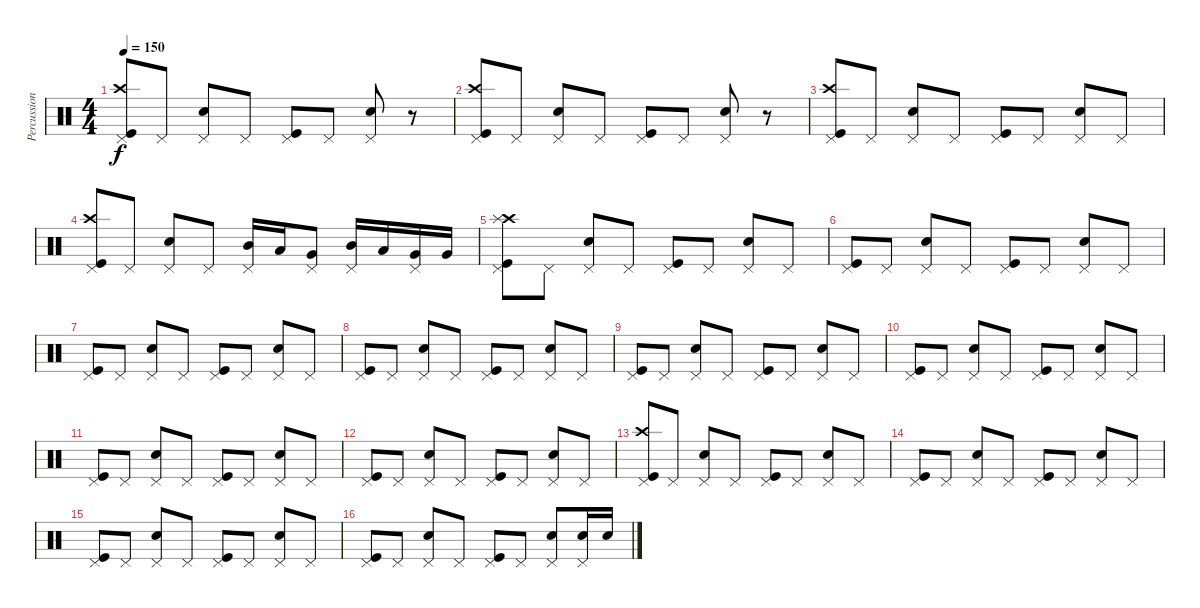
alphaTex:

\track ("Percussion" "Percussion") {instrument percussion}
\staff {score}
\articulation defaults
\ts (4 4)
\tempo 150
\clef neutral
\ks c
("Pedal Hi-Hat (hit)" "Crash high (hit)" "Kick (hit)").8{dy f} "Pedal Hi-Hat (hit)".8 ("Pedal Hi-Hat (hit)" "Snare (hit) 2").8 "Pedal Hi-Hat (hit)".8 ("Pedal Hi-Hat (hit)" "Kick (hit)").8 "Pedal Hi-Hat (hit)".8 ("Pedal Hi-Hat (hit)" "Snare (hit) 2").8 r.8 |
("Pedal Hi-Hat (hit)" "Crash high (hit)" "Kick (hit)").8 "Pedal Hi-Hat (hit)".8 ("Pedal Hi-Hat (hit)" "Snare (hit) 2").8 "Pedal Hi-Hat (hit)".8 ("Pedal Hi-Hat (hit)" "Kick (hit)").8 "Pedal Hi-Hat (hit)".8 ("Pedal Hi-Hat (hit)" "Snare (hit) 2").8 r.8 |
("Pedal Hi-Hat (hit)" "Crash high (hit)" "Kick (hit)").8 "Pedal Hi-Hat (hit)".8 ("Pedal Hi-Hat (hit)" "Snare (hit) 2").8 "Pedal Hi-Hat (hit)".8 ("Pedal Hi-Hat (hit)" "Kick (hit)").8 "Pedal Hi-Hat (hit)".8 ("Pedal Hi-Hat (hit)" "Snare (hit) 2").8 "Pedal Hi-Hat (hit)".8 |
("Pedal Hi-Hat (hit)" "Crash high (hit)" "Kick (hit)").8 "Pedal Hi-Hat (hit)".8 ("Pedal Hi-Hat (hit)" "Snare (hit) 2").8 "Pedal Hi-Hat (hit)".8 ("Pedal Hi-Hat (hit)" "Mid Tom (hit)").16 "Low Tom (hit)".16 ("Pedal Hi-Hat (hit)" "Very Low Tom (hit)").8 ("Pedal Hi-Hat (hit)" "Mid Tom (hit)").16 "Low Tom (hit)".16 ("Pedal Hi-Hat (hit)" "Very Low Tom (hit)").16 "Very Low Tom (hit)".16 |
("Pedal Hi-Hat (hit)" "Crash high (hit)" "Kick (hit)" "Splash (hit)").8 "Pedal Hi-Hat (hit)".8 ("Pedal Hi-Hat (hit)" "Snare (hit) 2").8 "Pedal Hi-Hat (hit)".8 ("Pedal Hi-Hat (hit)" "Kick (hit)").8 "Pedal Hi-Hat (hit)".8 ("Pedal Hi-Hat (hit)" "Snare (hit) 2").8 "Pedal Hi-Hat (hit)".8 |
("Pedal Hi-Hat (hit)" "Kick (hit)").8 "Pedal Hi-Hat (hit)".8 ("Pedal Hi-Hat (hit)" "Snare (hit) 2").8 "Pedal Hi-Hat (hit)".8 ("Pedal Hi-Hat (hit)" "Kick (hit)").8 "Pedal Hi-Hat (hit)".8 ("Pedal Hi-Hat (hit)" "Snare (hit) 2").8 "Pedal Hi-Hat (hit)".8 |
("Pedal Hi-Hat (hit)" "Kick (hit)").8 "Pedal Hi-Hat (hit)".8 ("Pedal Hi-Hat (hit)" "Snare (hit) 2").8 "Pedal Hi-Hat (hit)".8 ("Pedal Hi-Hat (hit)" "Kick (hit)").8 "Pedal Hi-Hat (hit)".8 ("Pedal Hi-Hat (hit)" "Snare (hit) 2").8 "Pedal Hi-Hat (hit)".8 |
("Pedal Hi-Hat (hit)" "Kick (hit)").8 "Pedal Hi-Hat (hit)".8 ("Pedal Hi-Hat (hit)" "Snare (hit) 2").8 "Pedal Hi-Hat (hit)".8 ("Pedal Hi-Hat (hit)" "Kick (hit)").8 "Pedal Hi-Hat (hit)".8 ("Pedal Hi-Hat (hit)" "Snare (hit) 2").8 "Pedal Hi-Hat (hit)".8 |
("Pedal Hi-Hat (hit)" "Kick (hit)").8 "Pedal Hi-Hat (hit)".8 ("Pedal Hi-Hat (hit)" "Snare (hit) 2").8 "Pedal Hi-Hat (hit)".8 ("Pedal Hi-Hat (hit)" "Kick (hit)").8 "Pedal Hi-Hat (hit)".8 ("Pedal Hi-Hat (hit)" "Snare (hit) 2").8 "Pedal Hi-Hat (hit)".8 |
("Pedal Hi-Hat (hit)" "Kick (hit)").8 "Pedal Hi-Hat (hit)".8 ("Pedal Hi-Hat (hit)" "Snare (hit) 2").8 "Pedal Hi-Hat (hit)".8 ("Pedal Hi-Hat (hit)" "Kick (hit)").8 "Pedal Hi-Hat (hit)".8 ("Pedal Hi-Hat (hit)" "Snare (hit) 2").8 "Pedal Hi-Hat (hit)".8 |
("Pedal Hi-Hat (hit)" "Kick (hit)").8 "Pedal Hi-Hat (hit)".8 ("Pedal Hi-Hat (hit)" "Snare (hit) 2").8 "Pedal Hi-Hat (hit)".8 ("Pedal Hi-Hat (hit)" "Kick (hit)").8 "Pedal Hi-Hat (hit)".8 ("Pedal Hi-Hat (hit)" "Snare (hit) 2").8 "Pedal Hi-Hat (hit)".8 |
("Pedal Hi-Hat (hit)" "Kick (hit)").8 "Pedal Hi-Hat (hit)".8 ("Pedal Hi-Hat (hit)" "Snare (hit) 2").8 "Pedal Hi-Hat (hit)".8 ("Pedal Hi-Hat (hit)" "Kick (hit)").8 "Pedal Hi-Hat (hit)".8 ("Pedal Hi-Hat (hit)" "Snare (hit) 2").8 "Pedal Hi-Hat (hit)".8 |
("Pedal Hi-Hat (hit)" "Crash high (hit)" "Kick (hit)").8 "Pedal Hi-Hat (hit)".8 ("Pedal Hi-Hat (hit)" "Snare (hit) 2").8 "Pedal Hi-Hat (hit)".8 ("Pedal Hi-Hat (hit)" "Kick (hit)").8 "Pedal Hi-Hat (hit)".8 ("Pedal Hi-Hat (hit)" "Snare (hit) 2").8 "Pedal Hi-Hat (hit)".8 |
("Pedal Hi-Hat (hit)" "Kick (hit)").8 "Pedal Hi-Hat (hit)".8 ("Pedal Hi-Hat (hit)" "Snare (hit) 2").8 "Pedal Hi-Hat (hit)".8 ("Pedal Hi-Hat (hit)" "Kick (hit)").8 "Pedal Hi-Hat (hit)".8 ("Pedal Hi-Hat (hit)" "Snare (hit) 2").8 "Pedal Hi-Hat (hit)".8 |
("Pedal Hi-Hat (hit)" "Kick (hit)").8 "Pedal Hi-Hat (hit)".8 ("Pedal Hi-Hat (hit)" "Snare (hit) 2").8 "Pedal Hi-Hat (hit)".8 ("Pedal Hi-Hat (hit)" "Kick (hit)").8 "Pedal Hi-Hat (hit)".8 ("Pedal Hi-Hat (hit)" "Snare (hit) 2").8 "Pedal Hi-Hat (hit)".8 |
("Pedal Hi-Hat (hit)" "Kick (hit)").8 "Pedal Hi-Hat (hit)".8 ("Pedal Hi-Hat (hit)" "Snare (hit) 2").8 "Pedal Hi-Hat (hit)".8 ("Pedal Hi-Hat (hit)" "Kick (hit)").8 "Pedal Hi-Hat (hit)".8 ("Pedal Hi-Hat (hit)" "Snare (hit) 2").8 ("Pedal Hi-Hat (hit)" "Snare (hit) 2").16 "Snare (hit) 2".16
